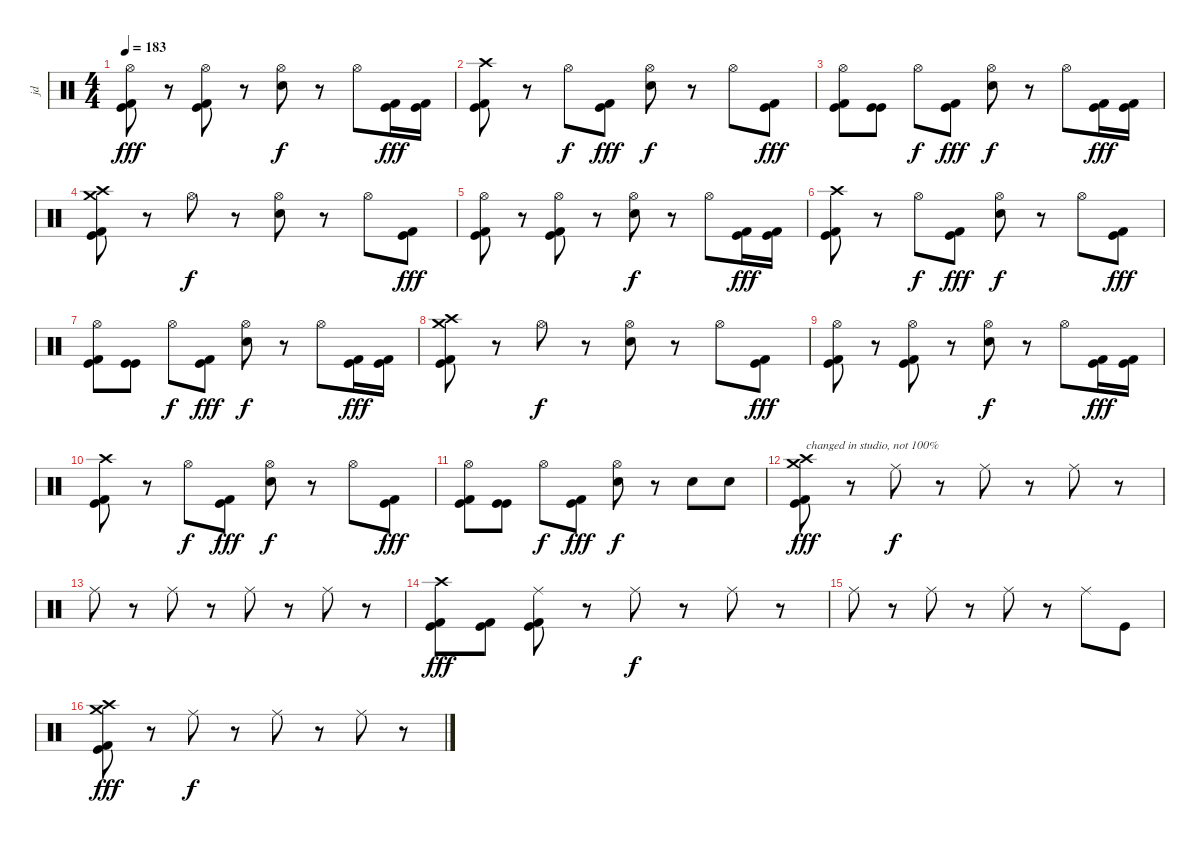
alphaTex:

\track ("jd" "jd") {instrument percussion}
\staff {score}
\articulation defaults
\ts (4 4)
\tempo 183
\clef neutral
\ks c
("Kick (hit)" "Kick (hit) 2" "Hi-Hat (open)").8{dy fff} r.8 ("Kick (hit)" "Kick (hit) 2" "Hi-Hat (open)").8 r.8 ("Electric Snare (hit)" "Hi-Hat (open)").8{dy f} r.8 "Hi-Hat (open)".8 ("Kick (hit)" "Kick (hit) 2").16{dy fff} ("Kick (hit)" "Kick (hit) 2").16 |
("Kick (hit)" "Kick (hit) 2" "Crash high (hit)").8 r.8 "Hi-Hat (open)".8{dy f} ("Kick (hit)" "Kick (hit) 2").8{dy fff} ("Electric Snare (hit)" "Hi-Hat (open)").8{dy f} r.8 "Hi-Hat (open)".8 ("Kick (hit)" "Kick (hit) 2").8{dy fff} |
("Kick (hit)" "Kick (hit) 2" "Hi-Hat (open)").8 ("Kick (hit)" "Kick (hit)").8 "Hi-Hat (open)".8{dy f} ("Kick (hit)" "Kick (hit) 2").8{dy fff} ("Electric Snare (hit)" "Hi-Hat (open)").8{dy f} r.8 "Hi-Hat (open)".8 ("Kick (hit)" "Kick (hit) 2").16{dy fff} ("Kick (hit)" "Kick (hit) 2").16 |
("Kick (hit)" "Kick (hit) 2" "Crash high (hit)" "Crash medium (hit)").8 r.8 "Hi-Hat (open)".8{dy f} r.8 ("Electric Snare (hit)" "Hi-Hat (open)").8 r.8 "Hi-Hat (open)".8 ("Kick (hit)" "Kick (hit) 2").8{dy fff} |
("Kick (hit)" "Kick (hit) 2" "Hi-Hat (open)").8 r.8 ("Kick (hit)" "Kick (hit) 2" "Hi-Hat (open)").8 r.8 ("Electric Snare (hit)" "Hi-Hat (open)").8{dy f} r.8 "Hi-Hat (open)".8 ("Kick (hit)" "Kick (hit) 2").16{dy fff} ("Kick (hit)" "Kick (hit) 2").16 |
("Kick (hit)" "Kick (hit) 2" "Crash high (hit)").8 r.8 "Hi-Hat (open)".8{dy f} ("Kick (hit)" "Kick (hit) 2").8{dy fff} ("Electric Snare (hit)" "Hi-Hat (open)").8{dy f} r.8 "Hi-Hat (open)".8 ("Kick (hit)" "Kick (hit) 2").8{dy fff} |
("Kick (hit)" "Kick (hit) 2" "Hi-Hat (open)").8 ("Kick (hit)" "Kick (hit)").8 "Hi-Hat (open)".8{dy f} ("Kick (hit)" "Kick (hit) 2").8{dy fff} ("Electric Snare (hit)" "Hi-Hat (open)").8{dy f} r.8 "Hi-Hat (open)".8 ("Kick (hit)" "Kick (hit) 2").16{dy fff} ("Kick (hit)" "Kick (hit) 2").16 |
("Kick (hit)" "Kick (hit) 2" "Crash high (hit)" "Crash medium (hit)").8 r.8 "Hi-Hat (open)".8{dy f} r.8 ("Electric Snare (hit)" "Hi-Hat (open)").8 r.8 "Hi-Hat (open)".8 ("Kick (hit)" "Kick (hit) 2").8{dy fff} |
("Kick (hit)" "Kick (hit) 2" "Hi-Hat (open)").8 r.8 ("Kick (hit)" "Kick (hit) 2" "Hi-Hat (open)").8 r.8 ("Electric Snare (hit)" "Hi-Hat (open)").8{dy f} r.8 "Hi-Hat (open)".8 ("Kick (hit)" "Kick (hit) 2").16{dy fff} ("Kick (hit)" "Kick (hit) 2").16 |
("Kick (hit)" "Kick (hit) 2" "Crash high (hit)").8 r.8 "Hi-Hat (open)".8{dy f} ("Kick (hit)" "Kick (hit) 2").8{dy fff} ("Electric Snare (hit)" "Hi-Hat (open)").8{dy f} r.8 "Hi-Hat (open)".8 ("Kick (hit)" "Kick (hit) 2").8{dy fff} |
("Kick (hit)" "Kick (hit) 2" "Hi-Hat (open)").8 ("Kick (hit)" "Kick (hit)").8 "Hi-Hat (open)".8{dy f} ("Kick (hit)" "Kick (hit) 2").8{dy fff} ("Electric Snare (hit)" "Hi-Hat (open)").8{dy f} r.8 "Electric Snare (hit)".8 "Electric Snare (hit)".8 |
("Kick (hit)" "Kick (hit) 2" "Crash high (hit)" "Crash medium (hit)").8{txt "changed in studio, not 100%" dy fff} r.8 "Ride (middle)".8{dy f} r.8 "Ride (middle)".8 r.8 "Ride (middle)".8 r.8 |
"Ride (middle)".8 r.8 "Ride (middle)".8 r.8 "Ride (middle)".8 r.8 "Ride (middle)".8 r.8 |
("Kick (hit)" "Kick (hit) 2" "Crash high (hit)").8{dy fff} ("Kick (hit)" "Kick (hit) 2").8 ("Kick (hit)" "Kick (hit) 2" "Ride (middle)").8 r.8 "Ride (middle)".8{dy f} r.8 "Ride (middle)".8 r.8 |
"Ride (middle)".8 r.8 "Ride (middle)".8 r.8 "Ride (middle)".8 r.8 "Ride (middle)".8 "Kick (hit)".8 |
("Kick (hit)" "Kick (hit) 2" "Crash high (hit)" "Crash medium (hit)").8{dy fff} r.8 "Ride (middle)".8{dy f} r.8 "Ride (middle)".8 r.8 "Ride (middle)".8 r.8
